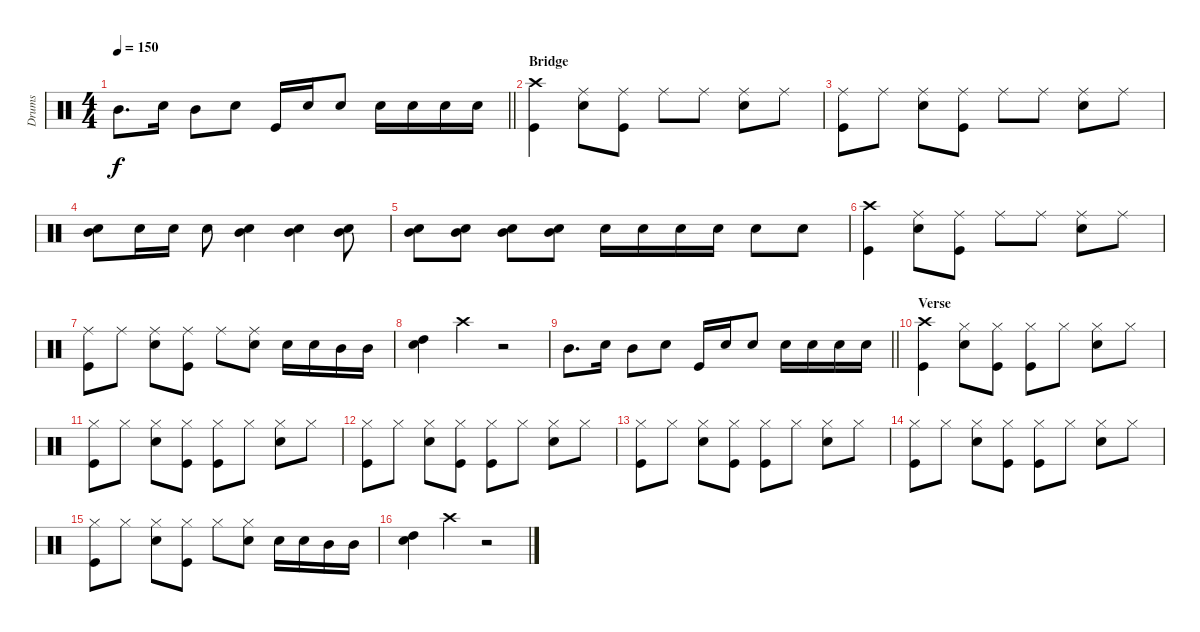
\track ("Drums" "Drums") {instrument percussion}
\staff {score}
\articulation defaults
\ts (4 4)
\tempo 150
\clef neutral
\barLineRight lightlight
\ks c "Mid Tom (hit)".8{d dy f} "Snare (hit) 2".16 "Mid Tom (hit)".8 "Snare (hit) 2".8 "Kick (hit)".16 "Snare (hit) 2".16 "Snare (hit) 2".8 "Snare (hit) 2".16 "Snare (hit) 2".16 "Snare (hit) 2".16 "Snare (hit) 2".16
|
\section ("" "Bridge")
("Crash high (hit)" "Kick (hit)").4 ("Ride (middle)" "Snare (hit) 2").8 ("Ride (middle)" "Kick (hit)").8 "Ride (middle)".8 "Ride (middle)".8 ("Ride (middle)" "Snare (hit) 2").8 "Ride (middle)".8 |
("Ride (middle)" "Kick (hit)").8 "Ride (middle)".8 ("Ride (middle)" "Snare (hit) 2").8 ("Ride (middle)" "Kick (hit)").8 "Ride (middle)".8 "Ride (middle)".8 ("Ride (middle)" "Snare (hit) 2").8 "Ride (middle)".8 |
("Mid Tom (hit)" "Snare (hit) 2").8 "Snare (hit) 2".16 "Snare (hit) 2".16 "Snare (hit) 2".8 ("Mid Tom (hit)" "Snare (hit) 2").4 ("Mid Tom (hit)" "Snare (hit) 2").4 ("Mid Tom (hit)" "Snare (hit) 2").8 |
("Mid Tom (hit)" "Snare (hit) 2").8 ("Mid Tom (hit)" "Snare (hit) 2").8 ("Mid Tom (hit)" "Snare (hit) 2").8 ("Mid Tom (hit)" "Snare (hit) 2").8 "Snare (hit) 2".16 "Snare (hit) 2".16 "Snare (hit) 2".16 "Snare (hit) 2".16 "Snare (hit) 2".8 "Snare (hit) 2".8 |
("Crash high (hit)" "Kick (hit)").4 ("Ride (middle)" "Snare (hit) 2").8 ("Ride (middle)" "Kick (hit)").8 "Ride (middle)".8 "Ride (middle)".8 ("Ride (middle)" "Snare (hit) 2").8 "Ride (middle)".8 |
("Ride (middle)" "Kick (hit)").8 "Ride (middle)".8 ("Ride (middle)" "Snare (hit) 2").8 ("Ride (middle)" "Kick (hit)").8 "Ride (middle)".8 ("Ride (middle)" "Snare (hit) 2").8 "Snare (hit) 2".16 "Snare (hit) 2".16 "Mid Tom (hit)".16 "Mid Tom (hit)".16 |
("High Tom (hit)" "Snare (hit) 2").4 "Crash high (hit)".4 r.2 |
\barLineRight lightlight "Mid Tom (hit)".8{d} "Snare (hit) 2".16 "Mid Tom (hit)".8 "Snare (hit) 2".8 "Kick (hit)".16 "Snare (hit) 2".16 "Snare (hit) 2".8 "Snare (hit) 2".16 "Snare (hit) 2".16 "Snare (hit) 2".16 "Snare (hit) 2".16
|
\section ("" "Verse")
("Crash high (hit)" "Kick (hit)").4 ("Hi-Hat (closed)" "Snare (hit) 2").8 ("Hi-Hat (closed)" "Kick (hit)").8 ("Hi-Hat (closed)" "Kick (hit)").8 "Hi-Hat (closed)".8 ("Hi-Hat (closed)" "Snare (hit) 2").8 "Hi-Hat (closed)".8 |
("Hi-Hat (closed)" "Kick (hit)").8 "Hi-Hat (closed)".8 ("Hi-Hat (closed)" "Snare (hit) 2").8 ("Hi-Hat (closed)" "Kick (hit)").8 ("Hi-Hat (closed)" "Kick (hit)").8 "Hi-Hat (closed)".8 ("Hi-Hat (closed)" "Snare (hit) 2").8 "Hi-Hat (closed)".8 |
("Hi-Hat (closed)" "Kick (hit)").8 "Hi-Hat (closed)".8 ("Hi-Hat (closed)" "Snare (hit) 2").8 ("Hi-Hat (closed)" "Kick (hit)").8 ("Hi-Hat (closed)" "Kick (hit)").8 "Hi-Hat (closed)".8 ("Hi-Hat (closed)" "Snare (hit) 2").8 "Hi-Hat (closed)".8 |
("Hi-Hat (closed)" "Kick (hit)").8 "Hi-Hat (closed)".8 ("Hi-Hat (closed)" "Snare (hit) 2").8 ("Hi-Hat (closed)" "Kick (hit)").8 ("Hi-Hat (closed)" "Kick (hit)").8 "Hi-Hat (closed)".8 ("Hi-Hat (closed)" "Snare (hit) 2").8 "Hi-Hat (closed)".8 |
("Hi-Hat (closed)" "Kick (hit)").8 "Hi-Hat (closed)".8 ("Hi-Hat (closed)" "Snare (hit) 2").8 ("Hi-Hat (closed)" "Kick (hit)").8 ("Hi-Hat (closed)" "Kick (hit)").8 "Hi-Hat (closed)".8 ("Hi-Hat (closed)" "Snare (hit) 2").8 "Hi-Hat (closed)".8 |
("Hi-Hat (closed)" "Kick (hit)").8 "Hi-Hat (closed)".8 ("Hi-Hat (closed)" "Snare (hit) 2").8 ("Hi-Hat (closed)" "Kick (hit)").8 "Hi-Hat (closed)".8 ("Hi-Hat (closed)" "Snare (hit) 2").8 "Snare (hit) 2".16 "Snare (hit) 2".16 "Mid Tom (hit)".16 "Mid Tom (hit)".16 |
("High Tom (hit)" "Snare (hit) 2").4 "Crash high (hit)".4 r.2
